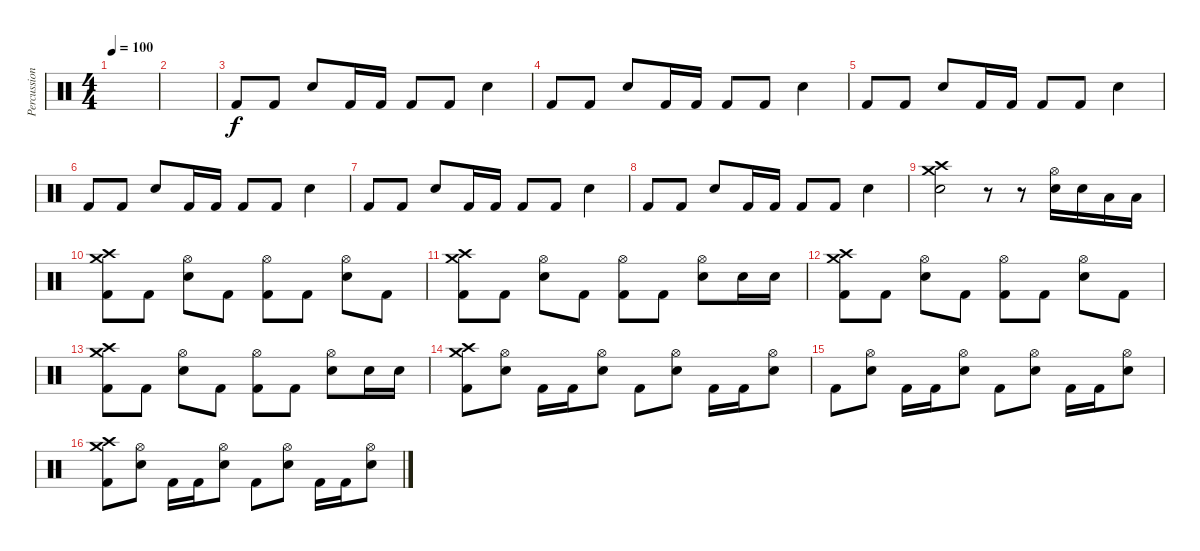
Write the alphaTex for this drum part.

\track ("Percussion" "Percussion") {instrument percussion}
\staff {score}
\articulation defaults
\ts (4 4)
\tempo 100
\clef neutral
\ks c
|
|
"Kick (hit) 2".8{volume 13} "Kick (hit) 2".8 "Electric Snare (hit)".8 "Kick (hit) 2".16 "Kick (hit) 2".16 "Kick (hit) 2".8 "Kick (hit) 2".8 "Electric Snare (hit)".4 |
"Kick (hit) 2".8 "Kick (hit) 2".8 "Electric Snare (hit)".8 "Kick (hit) 2".16 "Kick (hit) 2".16 "Kick (hit) 2".8 "Kick (hit) 2".8 "Electric Snare (hit)".4 |
"Kick (hit) 2".8 "Kick (hit) 2".8 "Electric Snare (hit)".8 "Kick (hit) 2".16 "Kick (hit) 2".16 "Kick (hit) 2".8 "Kick (hit) 2".8 "Electric Snare (hit)".4 |
"Kick (hit) 2".8 "Kick (hit) 2".8 "Electric Snare (hit)".8 "Kick (hit) 2".16 "Kick (hit) 2".16 "Kick (hit) 2".8 "Kick (hit) 2".8 "Electric Snare (hit)".4 |
"Kick (hit) 2".8 "Kick (hit) 2".8 "Electric Snare (hit)".8 "Kick (hit) 2".16 "Kick (hit) 2".16 "Kick (hit) 2".8 "Kick (hit) 2".8 "Electric Snare (hit)".4 |
"Kick (hit) 2".8 "Kick (hit) 2".8 "Electric Snare (hit)".8 "Kick (hit) 2".16 "Kick (hit) 2".16 "Kick (hit) 2".8 "Kick (hit) 2".8 "Electric Snare (hit)".4 |
("Crash medium (hit)" "Crash high (hit)" "Electric Snare (hit)").2 r.8 r.8 ("Hi-Hat (open)" "Electric Snare (hit)").16 "Electric Snare (hit)".16 "Low Tom (hit)".16 "Low Tom (hit)".16 |
("Crash high (hit)" "Crash medium (hit)" "Kick (hit) 2").8 "Kick (hit) 2".8 ("Hi-Hat (open)" "Electric Snare (hit)").8 "Kick (hit) 2".8 ("Hi-Hat (open)" "Kick (hit) 2").8 "Kick (hit) 2".8 ("Hi-Hat (open)" "Electric Snare (hit)").8 "Kick (hit) 2".8 |
("Crash high (hit)" "Crash medium (hit)" "Kick (hit) 2").8 "Kick (hit) 2".8 ("Hi-Hat (open)" "Electric Snare (hit)").8 "Kick (hit) 2".8 ("Hi-Hat (open)" "Kick (hit) 2").8 "Kick (hit) 2".8 ("Hi-Hat (open)" "Electric Snare (hit)").8 "Electric Snare (hit)".16 "Electric Snare (hit)".16 |
("Crash high (hit)" "Crash medium (hit)" "Kick (hit) 2").8 "Kick (hit) 2".8 ("Hi-Hat (open)" "Electric Snare (hit)").8 "Kick (hit) 2".8 ("Hi-Hat (open)" "Kick (hit) 2").8 "Kick (hit) 2".8 ("Hi-Hat (open)" "Electric Snare (hit)").8 "Kick (hit) 2".8 |
("Crash high (hit)" "Crash medium (hit)" "Kick (hit) 2").8 "Kick (hit) 2".8 ("Hi-Hat (open)" "Electric Snare (hit)").8 "Kick (hit) 2".8 ("Hi-Hat (open)" "Kick (hit) 2").8 "Kick (hit) 2".8 ("Hi-Hat (open)" "Electric Snare (hit)").8 "Electric Snare (hit)".16 "Electric Snare (hit)".16 |
("Crash high (hit)" "Crash medium (hit)" "Kick (hit) 2").8 ("Hi-Hat (open)" "Electric Snare (hit)").8 "Kick (hit) 2".16 "Kick (hit) 2".16 ("Hi-Hat (open)" "Electric Snare (hit)").8 "Kick (hit) 2".8 ("Hi-Hat (open)" "Electric Snare (hit)").8 "Kick (hit) 2".16 "Kick (hit) 2".16 ("Hi-Hat (open)" "Electric Snare (hit)").8 |
"Kick (hit) 2".8 ("Hi-Hat (open)" "Electric Snare (hit)").8 "Kick (hit) 2".16 "Kick (hit) 2".16 ("Hi-Hat (open)" "Electric Snare (hit)").8 "Kick (hit) 2".8 ("Hi-Hat (open)" "Electric Snare (hit)").8 "Kick (hit) 2".16 "Kick (hit) 2".16 ("Hi-Hat (open)" "Electric Snare (hit)").8 |
("Crash high (hit)" "Crash medium (hit)" "Kick (hit) 2").8 ("Hi-Hat (open)" "Electric Snare (hit)").8 "Kick (hit) 2".16 "Kick (hit) 2".16 ("Hi-Hat (open)" "Electric Snare (hit)").8 "Kick (hit) 2".8 ("Hi-Hat (open)" "Electric Snare (hit)").8 "Kick (hit) 2".16 "Kick (hit) 2".16 ("Hi-Hat (open)" "Electric Snare (hit)").8
